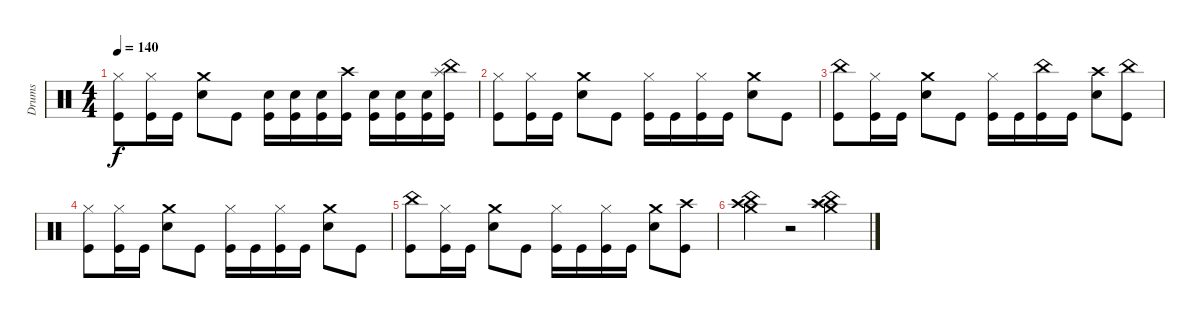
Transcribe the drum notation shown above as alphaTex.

\track ("Drums" "Drums") {instrument percussion}
\staff {score}
\articulation defaults
\ts (4 4)
\tempo 140
\clef neutral
\ks c
("Hi-Hat (closed)" "Kick (hit)").8{dy f} ("Hi-Hat (closed)" "Kick (hit)").16 "Kick (hit)".16 ("Crash medium (hit)" "Electric Snare (hit)").8 "Kick (hit)".8 ("Electric Snare (hit)" "Kick (hit)").16 ("Electric Snare (hit)" "Kick (hit)").16 ("Electric Snare (hit)" "Kick (hit)").16 ("Crash high (hit)" "Kick (hit)").16 ("Electric Snare (hit)" "Kick (hit)").16 ("Electric Snare (hit)" "Kick (hit)").16 ("Electric Snare (hit)" "Kick (hit)").16 ("Splash (hit)" "China (hit)" "Kick (hit)").16 |
("Hi-Hat (closed)" "Kick (hit)").8 ("Hi-Hat (closed)" "Kick (hit)").16 "Kick (hit)".16 ("Crash medium (hit)" "Electric Snare (hit)").8 "Kick (hit)".8 ("Hi-Hat (closed)" "Kick (hit)").16 "Kick (hit)".16 ("Hi-Hat (closed)" "Kick (hit)").16 "Kick (hit)".16 ("Crash medium (hit)" "Electric Snare (hit)").8 "Kick (hit)".8 |
("China (hit)" "Kick (hit)").8 ("Hi-Hat (closed)" "Kick (hit)").16 "Kick (hit)".16 ("Crash medium (hit)" "Electric Snare (hit)").8 "Kick (hit)".8 ("Hi-Hat (closed)" "Kick (hit)").16 "Kick (hit)".16 ("China (hit)" "Kick (hit)").16 "Kick (hit)".16 ("Crash high (hit)" "Electric Snare (hit)").8 ("China (hit)" "Kick (hit)").8 |
("Hi-Hat (closed)" "Kick (hit)").8 ("Hi-Hat (closed)" "Kick (hit)").16 "Kick (hit)".16 ("Crash medium (hit)" "Electric Snare (hit)").8 "Kick (hit)".8 ("Hi-Hat (closed)" "Kick (hit)").16 "Kick (hit)".16 ("Hi-Hat (closed)" "Kick (hit)").16 "Kick (hit)".16 ("Crash medium (hit)" "Electric Snare (hit)").8 "Kick (hit)".8 |
("China (hit)" "Kick (hit)").8 ("Hi-Hat (closed)" "Kick (hit)").16 "Kick (hit)".16 ("Crash medium (hit)" "Electric Snare (hit)").8 "Kick (hit)".8 ("Hi-Hat (closed)" "Kick (hit)").16 "Kick (hit)".16 ("Hi-Hat (closed)" "Kick (hit)").16 "Kick (hit)".16 ("Crash medium (hit)" "Electric Snare (hit)").8 ("Crash high (hit)" "Kick (hit)").8 |
("Crash medium (hit)" "Crash high (hit)" "China (hit)").4 r.2 ("Crash medium (hit)" "Crash high (hit)" "China (hit)" "Splash (hit)").4
